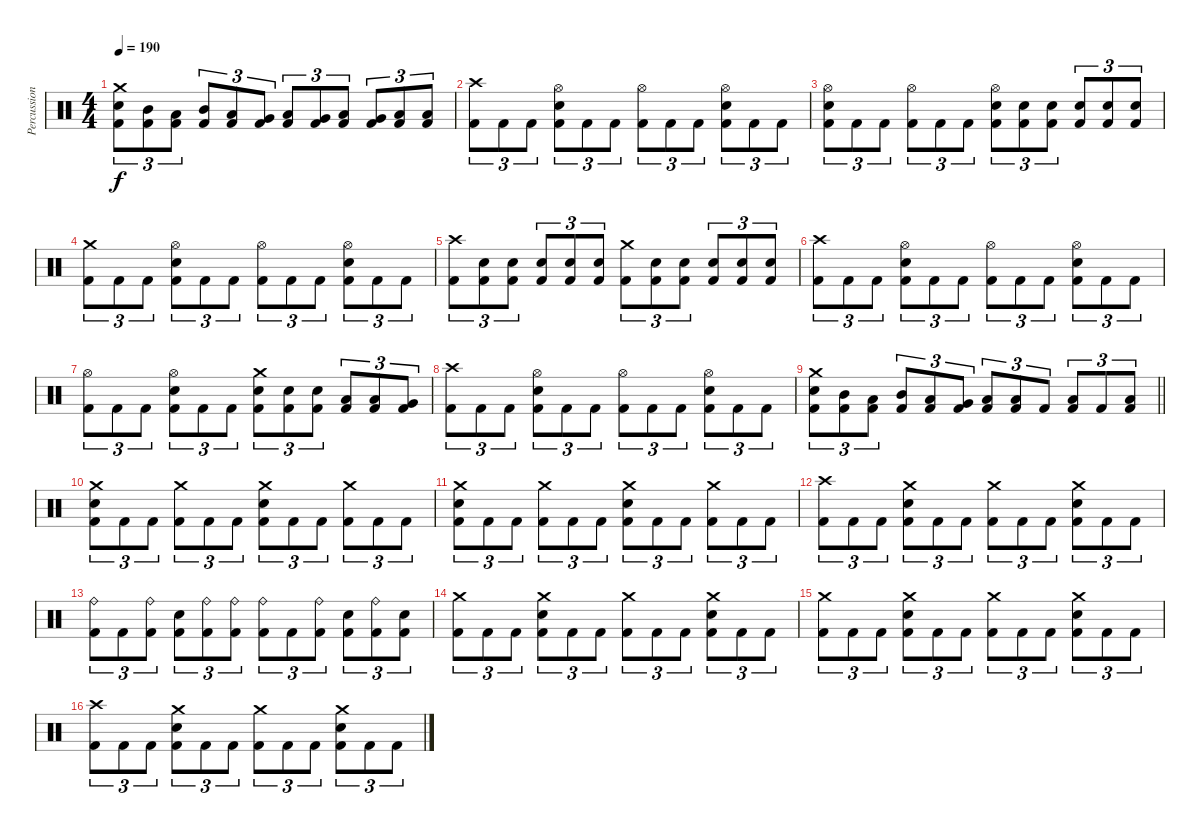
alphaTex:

\track ("Percussion" "Percussion") {instrument percussion}
\staff {score}
\articulation defaults
\ts (4 4)
\tempo 190
\clef neutral
\ks c
("Crash medium (hit)" "Snare (hit) 2" "Kick (hit) 2").8{tu (3 2) dy f} ("Mid Tom (hit)" "Kick (hit) 2").8{tu (3 2)} ("Low Tom (hit)" "Kick (hit) 2").8{tu (3 2)} ("Mid Tom (hit)" "Kick (hit) 2").8{tu (3 2)} ("Low Tom (hit)" "Kick (hit) 2").8{tu (3 2)} ("Very Low Tom (hit)" "Kick (hit) 2").8{tu (3 2)} ("Low Tom (hit)" "Kick (hit) 2").8{tu (3 2)} ("Very Low Tom (hit)" "Kick (hit) 2").8{tu (3 2)} ("Low Floor Tom (hit)" "Kick (hit) 2").8{tu (3 2)} ("Very Low Tom (hit)" "Kick (hit) 2").8{tu (3 2)} ("Low Floor Tom (hit)" "Kick (hit) 2").8{tu (3 2)} ("Low Floor Tom (hit)" "Kick (hit) 2").8{tu (3 2)} |
("Crash high (hit)" "Kick (hit) 2").8{tu (3 2)} "Kick (hit) 2".8{tu (3 2)} "Kick (hit) 2".8{tu (3 2)} ("Hi-Hat (open)" "Snare (hit) 2" "Kick (hit) 2").8{tu (3 2)} "Kick (hit) 2".8{tu (3 2)} "Kick (hit) 2".8{tu (3 2)} ("Hi-Hat (open)" "Kick (hit) 2").8{tu (3 2)} "Kick (hit) 2".8{tu (3 2)} "Kick (hit) 2".8{tu (3 2)} ("Hi-Hat (open)" "Snare (hit) 2" "Kick (hit) 2").8{tu (3 2)} "Kick (hit) 2".8{tu (3 2)} "Kick (hit) 2".8{tu (3 2)} |
("Hi-Hat (open)" "Snare (hit) 2" "Kick (hit) 2").8{tu (3 2)} "Kick (hit) 2".8{tu (3 2)} "Kick (hit) 2".8{tu (3 2)} ("Hi-Hat (open)" "Kick (hit) 2").8{tu (3 2)} "Kick (hit) 2".8{tu (3 2)} "Kick (hit) 2".8{tu (3 2)} ("Hi-Hat (open)" "Snare (hit) 2" "Kick (hit) 2").8{tu (3 2)} ("Snare (hit) 2" "Kick (hit) 2").8{tu (3 2)} ("Snare (hit) 2" "Kick (hit) 2").8{tu (3 2)} ("Snare (hit) 2" "Kick (hit) 2").8{tu (3 2)} ("Snare (hit) 2" "Kick (hit) 2").8{tu (3 2)} ("Snare (hit) 2" "Kick (hit) 2").8{tu (3 2)} |
("Crash medium (hit)" "Kick (hit) 2").8{tu (3 2)} "Kick (hit) 2".8{tu (3 2)} "Kick (hit) 2".8{tu (3 2)} ("Hi-Hat (open)" "Snare (hit) 2" "Kick (hit) 2").8{tu (3 2)} "Kick (hit) 2".8{tu (3 2)} "Kick (hit) 2".8{tu (3 2)} ("Hi-Hat (open)" "Kick (hit) 2").8{tu (3 2)} "Kick (hit) 2".8{tu (3 2)} "Kick (hit) 2".8{tu (3 2)} ("Hi-Hat (open)" "Snare (hit) 2" "Kick (hit) 2").8{tu (3 2)} "Kick (hit) 2".8{tu (3 2)} "Kick (hit) 2".8{tu (3 2)} |
("Crash high (hit)" "Kick (hit) 2").8{tu (3 2)} ("Snare (hit) 2" "Kick (hit) 2").8{tu (3 2)} ("Snare (hit) 2" "Kick (hit) 2").8{tu (3 2)} ("Snare (hit) 2" "Kick (hit) 2").8{tu (3 2)} ("Snare (hit) 2" "Kick (hit) 2").8{tu (3 2)} ("Snare (hit) 2" "Kick (hit) 2").8{tu (3 2)} ("Crash medium (hit)" "Kick (hit) 2").8{tu (3 2)} ("Snare (hit) 2" "Kick (hit) 2").8{tu (3 2)} ("Snare (hit) 2" "Kick (hit) 2").8{tu (3 2)} ("Snare (hit) 2" "Kick (hit) 2").8{tu (3 2)} ("Snare (hit) 2" "Kick (hit) 2").8{tu (3 2)} ("Snare (hit) 2" "Kick (hit) 2").8{tu (3 2)} |
("Crash high (hit)" "Kick (hit) 2").8{tu (3 2)} "Kick (hit) 2".8{tu (3 2)} "Kick (hit) 2".8{tu (3 2)} ("Hi-Hat (open)" "Snare (hit) 2" "Kick (hit) 2").8{tu (3 2)} "Kick (hit) 2".8{tu (3 2)} "Kick (hit) 2".8{tu (3 2)} ("Hi-Hat (open)" "Kick (hit) 2").8{tu (3 2)} "Kick (hit) 2".8{tu (3 2)} "Kick (hit) 2".8{tu (3 2)} ("Hi-Hat (open)" "Snare (hit) 2" "Kick (hit) 2").8{tu (3 2)} "Kick (hit) 2".8{tu (3 2)} "Kick (hit) 2".8{tu (3 2)} |
("Hi-Hat (open)" "Kick (hit) 2").8{tu (3 2)} "Kick (hit) 2".8{tu (3 2)} "Kick (hit) 2".8{tu (3 2)} ("Hi-Hat (open)" "Snare (hit) 2" "Kick (hit) 2").8{tu (3 2)} "Kick (hit) 2".8{tu (3 2)} "Kick (hit) 2".8{tu (3 2)} ("Crash medium (hit)" "Snare (hit) 2" "Kick (hit) 2").8{tu (3 2)} ("Snare (hit) 2" "Kick (hit) 2").8{tu (3 2)} ("Snare (hit) 2" "Kick (hit) 2").8{tu (3 2)} ("Low Floor Tom (hit)" "Kick (hit) 2").8{tu (3 2)} ("Low Floor Tom (hit)" "Kick (hit) 2").8{tu (3 2)} ("Very Low Tom (hit)" "Kick (hit) 2").8{tu (3 2)} |
("Crash high (hit)" "Kick (hit) 2").8{tu (3 2)} "Kick (hit) 2".8{tu (3 2)} "Kick (hit) 2".8{tu (3 2)} ("Hi-Hat (open)" "Snare (hit) 2" "Kick (hit) 2").8{tu (3 2)} "Kick (hit) 2".8{tu (3 2)} "Kick (hit) 2".8{tu (3 2)} ("Hi-Hat (open)" "Kick (hit) 2").8{tu (3 2)} "Kick (hit) 2".8{tu (3 2)} "Kick (hit) 2".8{tu (3 2)} ("Hi-Hat (open)" "Snare (hit) 2" "Kick (hit) 2").8{tu (3 2)} "Kick (hit) 2".8{tu (3 2)} "Kick (hit) 2".8{tu (3 2)} |
\barLineRight lightlight
("Crash medium (hit)" "Snare (hit) 2" "Kick (hit) 2").8{tu (3 2)} ("Mid Tom (hit)" "Kick (hit) 2").8{tu (3 2)} ("Low Tom (hit)" "Kick (hit) 2").8{tu (3 2)} ("Mid Tom (hit)" "Kick (hit) 2").8{tu (3 2)} ("Low Tom (hit)" "Kick (hit) 2").8{tu (3 2)} ("Very Low Tom (hit)" "Kick (hit) 2").8{tu (3 2)} ("Low Tom (hit)" "Kick (hit) 2").8{tu (3 2)} ("Low Floor Tom (hit)" "Kick (hit) 2").8{tu (3 2)} "Kick (hit) 2".8{tu (3 2)} ("Low Floor Tom (hit)" "Kick (hit) 2").8{tu (3 2)} "Kick (hit) 2".8{tu (3 2)} ("Low Floor Tom (hit)" "Kick (hit) 2").8{tu (3 2)} |
("Crash medium (hit)" "Snare (hit) 2" "Kick (hit) 2").8{tu (3 2)} "Kick (hit) 2".8{tu (3 2)} "Kick (hit) 2".8{tu (3 2)} ("Crash medium (hit)" "Kick (hit) 2").8{tu (3 2)} "Kick (hit) 2".8{tu (3 2)} "Kick (hit) 2".8{tu (3 2)} ("Crash medium (hit)" "Snare (hit) 2" "Kick (hit) 2").8{tu (3 2)} "Kick (hit) 2".8{tu (3 2)} "Kick (hit) 2".8{tu (3 2)} ("Crash medium (hit)" "Kick (hit) 2").8{tu (3 2)} "Kick (hit) 2".8{tu (3 2)} "Kick (hit) 2".8{tu (3 2)} |
("Crash medium (hit)" "Snare (hit) 2" "Kick (hit) 2").8{tu (3 2)} "Kick (hit) 2".8{tu (3 2)} "Kick (hit) 2".8{tu (3 2)} ("Crash medium (hit)" "Kick (hit) 2").8{tu (3 2)} "Kick (hit) 2".8{tu (3 2)} "Kick (hit) 2".8{tu (3 2)} ("Crash medium (hit)" "Snare (hit) 2" "Kick (hit) 2").8{tu (3 2)} "Kick (hit) 2".8{tu (3 2)} "Kick (hit) 2".8{tu (3 2)} ("Crash medium (hit)" "Kick (hit) 2").8{tu (3 2)} "Kick (hit) 2".8{tu (3 2)} "Kick (hit) 2".8{tu (3 2)} |
("Crash high (hit)" "Kick (hit) 2").8{tu (3 2)} "Kick (hit) 2".8{tu (3 2)} "Kick (hit) 2".8{tu (3 2)} ("Crash medium (hit)" "Snare (hit) 2" "Kick (hit) 2").8{tu (3 2)} "Kick (hit) 2".8{tu (3 2)} "Kick (hit) 2".8{tu (3 2)} ("Crash medium (hit)" "Kick (hit) 2").8{tu (3 2)} "Kick (hit) 2".8{tu (3 2)} "Kick (hit) 2".8{tu (3 2)} ("Crash medium (hit)" "Snare (hit) 2" "Kick (hit) 2").8{tu (3 2)} "Kick (hit) 2".8{tu (3 2)} "Kick (hit) 2".8{tu (3 2)} |
("Ride (bell)" "Kick (hit) 2").8{tu (3 2)} "Kick (hit) 2".8{tu (3 2)} ("Ride (bell)" "Kick (hit) 2").8{tu (3 2)} ("Snare (hit) 2" "Kick (hit) 2").8{tu (3 2)} ("Ride (bell)" "Kick (hit) 2").8{tu (3 2)} ("Ride (bell)" "Kick (hit) 2").8{tu (3 2)} ("Ride (bell)" "Kick (hit) 2").8{tu (3 2)} "Kick (hit) 2".8{tu (3 2)} ("Ride (bell)" "Kick (hit) 2").8{tu (3 2)} ("Snare (hit) 2" "Kick (hit) 2").8{tu (3 2)} ("Ride (bell)" "Kick (hit) 2").8{tu (3 2)} ("Snare (hit) 2" "Kick (hit) 2").8{tu (3 2)} |
("Crash medium (hit)" "Kick (hit) 2").8{tu (3 2)} "Kick (hit) 2".8{tu (3 2)} "Kick (hit) 2".8{tu (3 2)} ("Crash medium (hit)" "Snare (hit) 2" "Kick (hit) 2").8{tu (3 2)} "Kick (hit) 2".8{tu (3 2)} "Kick (hit) 2".8{tu (3 2)} ("Crash medium (hit)" "Kick (hit) 2").8{tu (3 2)} "Kick (hit) 2".8{tu (3 2)} "Kick (hit) 2".8{tu (3 2)} ("Crash medium (hit)" "Snare (hit) 2" "Kick (hit) 2").8{tu (3 2)} "Kick (hit) 2".8{tu (3 2)} "Kick (hit) 2".8{tu (3 2)} |
("Crash medium (hit)" "Kick (hit) 2").8{tu (3 2)} "Kick (hit) 2".8{tu (3 2)} "Kick (hit) 2".8{tu (3 2)} ("Crash medium (hit)" "Snare (hit) 2" "Kick (hit) 2").8{tu (3 2)} "Kick (hit) 2".8{tu (3 2)} "Kick (hit) 2".8{tu (3 2)} ("Crash medium (hit)" "Kick (hit) 2").8{tu (3 2)} "Kick (hit) 2".8{tu (3 2)} "Kick (hit) 2".8{tu (3 2)} ("Crash medium (hit)" "Snare (hit) 2" "Kick (hit) 2").8{tu (3 2)} "Kick (hit) 2".8{tu (3 2)} "Kick (hit) 2".8{tu (3 2)} |
("Crash high (hit)" "Kick (hit) 2").8{tu (3 2)} "Kick (hit) 2".8{tu (3 2)} "Kick (hit) 2".8{tu (3 2)} ("Crash medium (hit)" "Snare (hit) 2" "Kick (hit) 2").8{tu (3 2)} "Kick (hit) 2".8{tu (3 2)} "Kick (hit) 2".8{tu (3 2)} ("Crash medium (hit)" "Kick (hit) 2").8{tu (3 2)} "Kick (hit) 2".8{tu (3 2)} "Kick (hit) 2".8{tu (3 2)} ("Crash medium (hit)" "Snare (hit) 2" "Kick (hit) 2").8{tu (3 2)} "Kick (hit) 2".8{tu (3 2)} "Kick (hit) 2".8{tu (3 2)}
